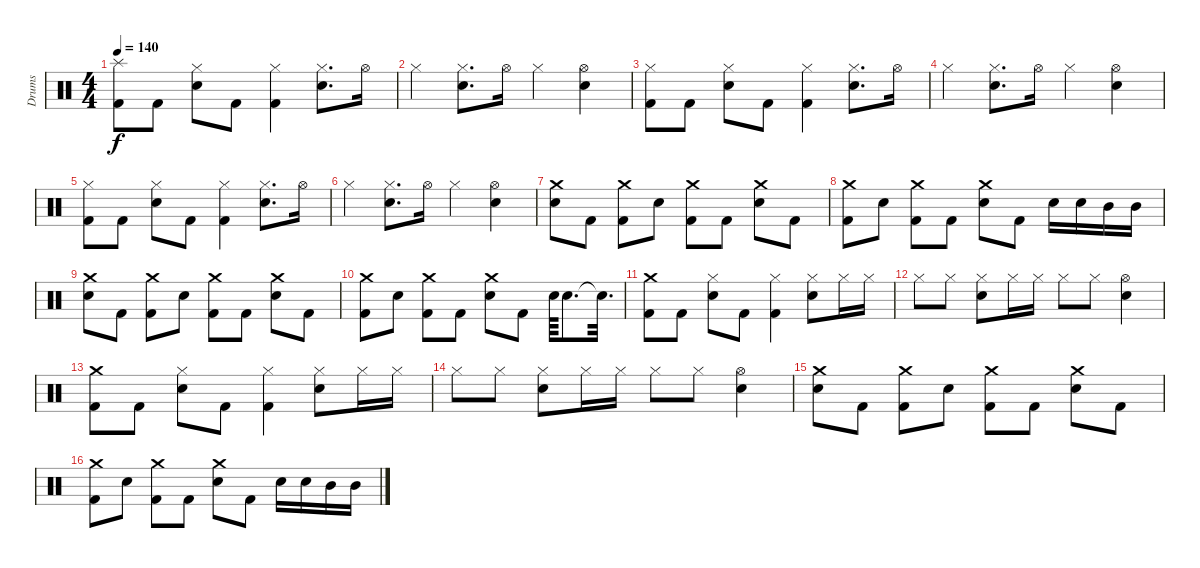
\track ("Drums" "Drums") {instrument percussion}
\staff {score}
\articulation defaults
\ts (4 4)
\tempo 140
\clef neutral
\ks c
("Splash (hit)" "Kick (hit) 2").8{dy f} "Kick (hit) 2".8 ("Hi-Hat (closed)" "Electric Snare (hit)").8 "Kick (hit) 2".8 ("Hi-Hat (closed)" "Kick (hit) 2").4 ("Hi-Hat (closed)" "Electric Snare (hit)").8{d} "Hi-Hat (open)".16 |
"Hi-Hat (closed)".4 ("Hi-Hat (closed)" "Electric Snare (hit)").8{d} "Hi-Hat (open)".16 "Hi-Hat (closed)".4 ("Hi-Hat (open)" "Electric Snare (hit)").4 |
("Hi-Hat (closed)" "Kick (hit) 2").8 "Kick (hit) 2".8 ("Hi-Hat (closed)" "Electric Snare (hit)").8 "Kick (hit) 2".8 ("Hi-Hat (closed)" "Kick (hit) 2").4 ("Hi-Hat (closed)" "Electric Snare (hit)").8{d} "Hi-Hat (open)".16 |
"Hi-Hat (closed)".4 ("Hi-Hat (closed)" "Electric Snare (hit)").8{d} "Hi-Hat (open)".16 "Hi-Hat (closed)".4 ("Hi-Hat (open)" "Electric Snare (hit)").4 |
("Hi-Hat (closed)" "Kick (hit) 2").8 "Kick (hit) 2".8 ("Hi-Hat (closed)" "Electric Snare (hit)").8 "Kick (hit) 2".8 ("Hi-Hat (closed)" "Kick (hit) 2").4 ("Hi-Hat (closed)" "Electric Snare (hit)").8{d} "Hi-Hat (open)".16 |
"Hi-Hat (closed)".4 ("Hi-Hat (closed)" "Electric Snare (hit)").8{d} "Hi-Hat (open)".16 "Hi-Hat (closed)".4 ("Hi-Hat (open)" "Electric Snare (hit)").4 |
("Crash medium (hit)" "Electric Snare (hit)").8 "Kick (hit) 2".8 ("Crash medium (hit)" "Kick (hit) 2").8 "Electric Snare (hit)".8 ("Crash medium (hit)" "Kick (hit) 2").8 "Kick (hit) 2".8 ("Crash medium (hit)" "Electric Snare (hit)").8 "Kick (hit) 2".8 |
("Crash medium (hit)" "Kick (hit) 2").8 "Electric Snare (hit)".8 ("Crash medium (hit)" "Kick (hit) 2").8 "Kick (hit) 2".8 ("Crash medium (hit)" "Electric Snare (hit)").8 "Kick (hit) 2".8 "Electric Snare (hit)".16 "Electric Snare (hit)".16 "Mid Tom (hit)".16 "Mid Tom (hit)".16 |
("Crash medium (hit)" "Electric Snare (hit)").8 "Kick (hit) 2".8 ("Crash medium (hit)" "Kick (hit) 2").8 "Electric Snare (hit)".8 ("Crash medium (hit)" "Kick (hit) 2").8 "Kick (hit) 2".8 ("Crash medium (hit)" "Electric Snare (hit)").8 "Kick (hit) 2".8 |
("Crash medium (hit)" "Kick (hit) 2").8 "Electric Snare (hit)".8 ("Crash medium (hit)" "Kick (hit) 2").8 "Kick (hit) 2".8 ("Crash medium (hit)" "Electric Snare (hit)").8 "Kick (hit) 2".8 "Electric Snare (hit)".64 "Electric Snare (hit)".8{d} "Electric Snare (hit)"{t}.32{d} |
("Crash medium (hit)" "Kick (hit) 2").8 "Kick (hit) 2".8 ("Hi-Hat (closed)" "Electric Snare (hit)").8 "Kick (hit) 2".8 ("Hi-Hat (closed)" "Kick (hit) 2").4 ("Hi-Hat (closed)" "Electric Snare (hit)").8 "Hi-Hat (closed)".16 "Hi-Hat (closed)".16 |
"Hi-Hat (closed)".8 "Hi-Hat (closed)".8 ("Hi-Hat (closed)" "Electric Snare (hit)").8 "Hi-Hat (closed)".16 "Hi-Hat (closed)".16 "Hi-Hat (closed)".8 "Hi-Hat (closed)".8 ("Hi-Hat (open)" "Electric Snare (hit)").4 |
("Crash medium (hit)" "Kick (hit) 2").8 "Kick (hit) 2".8 ("Hi-Hat (closed)" "Electric Snare (hit)").8 "Kick (hit) 2".8 ("Hi-Hat (closed)" "Kick (hit) 2").4 ("Hi-Hat (closed)" "Electric Snare (hit)").8 "Hi-Hat (closed)".16 "Hi-Hat (closed)".16 |
"Hi-Hat (closed)".8 "Hi-Hat (closed)".8 ("Hi-Hat (closed)" "Electric Snare (hit)").8 "Hi-Hat (closed)".16 "Hi-Hat (closed)".16 "Hi-Hat (closed)".8 "Hi-Hat (closed)".8 ("Hi-Hat (open)" "Electric Snare (hit)").4 |
("Crash medium (hit)" "Electric Snare (hit)").8 "Kick (hit) 2".8 ("Crash medium (hit)" "Kick (hit) 2").8 "Electric Snare (hit)".8 ("Crash medium (hit)" "Kick (hit) 2").8 "Kick (hit) 2".8 ("Crash medium (hit)" "Electric Snare (hit)").8 "Kick (hit) 2".8 |
("Crash medium (hit)" "Kick (hit) 2").8 "Electric Snare (hit)".8 ("Crash medium (hit)" "Kick (hit) 2").8 "Kick (hit) 2".8 ("Crash medium (hit)" "Electric Snare (hit)").8 "Kick (hit) 2".8 "Electric Snare (hit)".16 "Electric Snare (hit)".16 "Mid Tom (hit)".16 "Mid Tom (hit)".16
